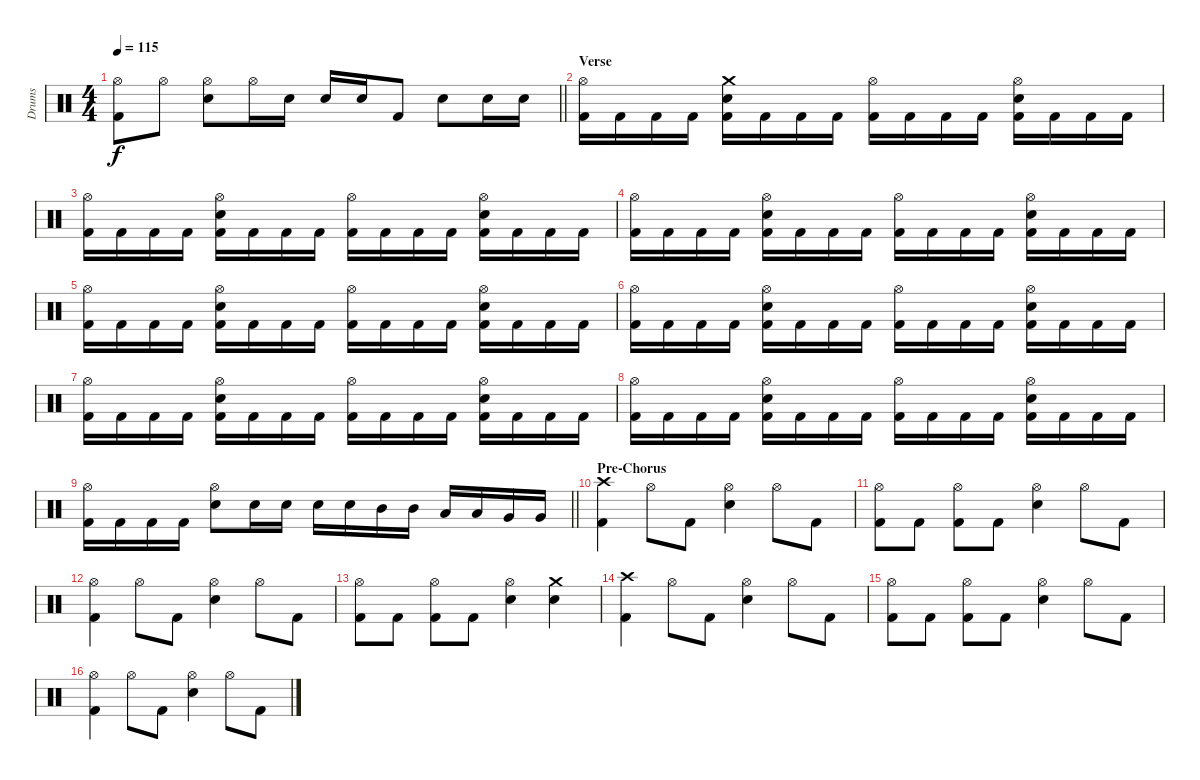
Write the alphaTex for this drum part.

\track ("Drums" "Drums") {instrument percussion}
\staff {score}
\articulation defaults
\ts (4 4)
\tempo 115
\clef neutral
\barLineRight lightlight
\ks c
("Hi-Hat (open)" "Kick (hit) 2").8{dy f} "Hi-Hat (open)".8 ("Hi-Hat (open)" "Electric Snare (hit)").8 "Hi-Hat (open)".16 "Electric Snare (hit)".16 "Electric Snare (hit)".16 "Electric Snare (hit)".16 "Kick (hit) 2".8 "Electric Snare (hit)".8 "Electric Snare (hit)".16 "Electric Snare (hit)".16 |
\section ("" "Verse")
("Hi-Hat (open)" "Kick (hit) 2").16 "Kick (hit) 2".16 "Kick (hit) 2".16 "Kick (hit) 2".16 ("Crash medium (hit)" "Electric Snare (hit)" "Kick (hit) 2").16 "Kick (hit) 2".16 "Kick (hit) 2".16 "Kick (hit) 2".16 ("Hi-Hat (open)" "Kick (hit) 2").16 "Kick (hit) 2".16 "Kick (hit) 2".16 "Kick (hit) 2".16 ("Hi-Hat (open)" "Electric Snare (hit)" "Kick (hit) 2").16 "Kick (hit) 2".16 "Kick (hit) 2".16 "Kick (hit) 2".16 |
("Hi-Hat (open)" "Kick (hit) 2").16 "Kick (hit) 2".16 "Kick (hit) 2".16 "Kick (hit) 2".16 ("Hi-Hat (open)" "Electric Snare (hit)" "Kick (hit) 2").16 "Kick (hit) 2".16 "Kick (hit) 2".16 "Kick (hit) 2".16 ("Hi-Hat (open)" "Kick (hit) 2").16 "Kick (hit) 2".16 "Kick (hit) 2".16 "Kick (hit) 2".16 ("Hi-Hat (open)" "Electric Snare (hit)" "Kick (hit) 2").16 "Kick (hit) 2".16 "Kick (hit) 2".16 "Kick (hit) 2".16 |
("Hi-Hat (open)" "Kick (hit) 2").16 "Kick (hit) 2".16 "Kick (hit) 2".16 "Kick (hit) 2".16 ("Hi-Hat (open)" "Electric Snare (hit)" "Kick (hit) 2").16 "Kick (hit) 2".16 "Kick (hit) 2".16 "Kick (hit) 2".16 ("Hi-Hat (open)" "Kick (hit) 2").16 "Kick (hit) 2".16 "Kick (hit) 2".16 "Kick (hit) 2".16 ("Hi-Hat (open)" "Electric Snare (hit)" "Kick (hit) 2").16 "Kick (hit) 2".16 "Kick (hit) 2".16 "Kick (hit) 2".16 |
("Hi-Hat (open)" "Kick (hit) 2").16 "Kick (hit) 2".16 "Kick (hit) 2".16 "Kick (hit) 2".16 ("Hi-Hat (open)" "Electric Snare (hit)" "Kick (hit) 2").16 "Kick (hit) 2".16 "Kick (hit) 2".16 "Kick (hit) 2".16 ("Hi-Hat (open)" "Kick (hit) 2").16 "Kick (hit) 2".16 "Kick (hit) 2".16 "Kick (hit) 2".16 ("Hi-Hat (open)" "Electric Snare (hit)" "Kick (hit) 2").16 "Kick (hit) 2".16 "Kick (hit) 2".16 "Kick (hit) 2".16 |
("Hi-Hat (open)" "Kick (hit) 2").16 "Kick (hit) 2".16 "Kick (hit) 2".16 "Kick (hit) 2".16 ("Hi-Hat (open)" "Electric Snare (hit)" "Kick (hit) 2").16 "Kick (hit) 2".16 "Kick (hit) 2".16 "Kick (hit) 2".16 ("Hi-Hat (open)" "Kick (hit) 2").16 "Kick (hit) 2".16 "Kick (hit) 2".16 "Kick (hit) 2".16 ("Hi-Hat (open)" "Electric Snare (hit)" "Kick (hit) 2").16 "Kick (hit) 2".16 "Kick (hit) 2".16 "Kick (hit) 2".16 |
("Hi-Hat (open)" "Kick (hit) 2").16 "Kick (hit) 2".16 "Kick (hit) 2".16 "Kick (hit) 2".16 ("Hi-Hat (open)" "Electric Snare (hit)" "Kick (hit) 2").16 "Kick (hit) 2".16 "Kick (hit) 2".16 "Kick (hit) 2".16 ("Hi-Hat (open)" "Kick (hit) 2").16 "Kick (hit) 2".16 "Kick (hit) 2".16 "Kick (hit) 2".16 ("Hi-Hat (open)" "Electric Snare (hit)" "Kick (hit) 2").16 "Kick (hit) 2".16 "Kick (hit) 2".16 "Kick (hit) 2".16 |
("Hi-Hat (open)" "Kick (hit) 2").16 "Kick (hit) 2".16 "Kick (hit) 2".16 "Kick (hit) 2".16 ("Hi-Hat (open)" "Electric Snare (hit)" "Kick (hit) 2").16 "Kick (hit) 2".16 "Kick (hit) 2".16 "Kick (hit) 2".16 ("Hi-Hat (open)" "Kick (hit) 2").16 "Kick (hit) 2".16 "Kick (hit) 2".16 "Kick (hit) 2".16 ("Hi-Hat (open)" "Electric Snare (hit)" "Kick (hit) 2").16 "Kick (hit) 2".16 "Kick (hit) 2".16 "Kick (hit) 2".16 |
\barLineRight lightlight
("Hi-Hat (open)" "Kick (hit) 2").16 "Kick (hit) 2".16 "Kick (hit) 2".16 "Kick (hit) 2".16 ("Hi-Hat (open)" "Electric Snare (hit)").8 "Electric Snare (hit)".16 "Electric Snare (hit)".16 "Electric Snare (hit)".16 "Electric Snare (hit)".16 "Mid Tom (hit)".16 "Mid Tom (hit)".16 "Low Tom (hit)".16 "Low Tom (hit)".16 "Very Low Tom (hit)".16 "Very Low Tom (hit)".16 |
\section ("" "Pre-Chorus")
("Crash high (hit)" "Kick (hit) 2").4 "Hi-Hat (open)".8 "Kick (hit) 2".8 ("Hi-Hat (open)" "Electric Snare (hit)").4 "Hi-Hat (open)".8 "Kick (hit) 2".8 |
("Hi-Hat (open)" "Kick (hit) 2").8 "Kick (hit) 2".8 ("Hi-Hat (open)" "Kick (hit) 2").8 "Kick (hit) 2".8 ("Hi-Hat (open)" "Electric Snare (hit)").4 "Hi-Hat (open)".8 "Kick (hit) 2".8 |
("Hi-Hat (open)" "Kick (hit) 2").4 "Hi-Hat (open)".8 "Kick (hit) 2".8 ("Hi-Hat (open)" "Electric Snare (hit)").4 "Hi-Hat (open)".8 "Kick (hit) 2".8 |
("Hi-Hat (open)" "Kick (hit) 2").8 "Kick (hit) 2".8 ("Hi-Hat (open)" "Kick (hit) 2").8 "Kick (hit) 2".8 ("Hi-Hat (open)" "Electric Snare (hit)").4 ("Crash medium (hit)" "Electric Snare (hit)").4 |
("Crash high (hit)" "Kick (hit) 2").4 "Hi-Hat (open)".8 "Kick (hit) 2".8 ("Hi-Hat (open)" "Electric Snare (hit)").4 "Hi-Hat (open)".8 "Kick (hit) 2".8 |
("Hi-Hat (open)" "Kick (hit) 2").8 "Kick (hit) 2".8 ("Hi-Hat (open)" "Kick (hit) 2").8 "Kick (hit) 2".8 ("Hi-Hat (open)" "Electric Snare (hit)").4 "Hi-Hat (open)".8 "Kick (hit) 2".8 |
("Hi-Hat (open)" "Kick (hit) 2").4 "Hi-Hat (open)".8 "Kick (hit) 2".8 ("Hi-Hat (open)" "Electric Snare (hit)").4 "Hi-Hat (open)".8 "Kick (hit) 2".8
